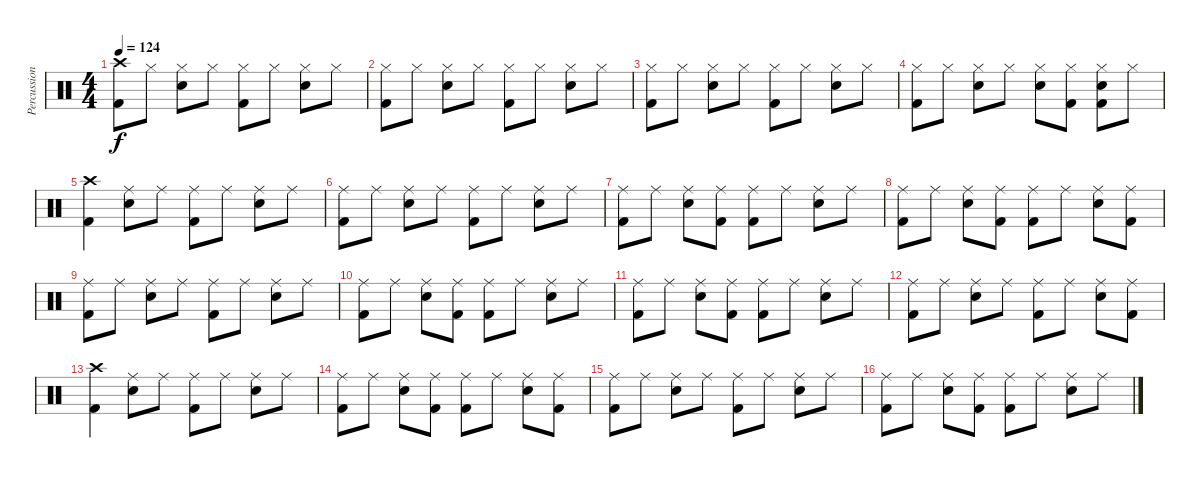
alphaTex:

\track ("Percussion" "Percussion") {instrument percussion}
\staff {score}
\articulation defaults
\ts (4 4)
\tempo 124
\clef neutral
\ks c
("Crash high (hit)" "Kick (hit) 2").8{dy f} "Hi-Hat (closed)".8 ("Hi-Hat (closed)" "Snare (hit) 2").8 "Hi-Hat (closed)".8 ("Hi-Hat (closed)" "Kick (hit) 2").8 "Hi-Hat (closed)".8 ("Hi-Hat (closed)" "Snare (hit) 2").8 "Hi-Hat (closed)".8 |
("Hi-Hat (closed)" "Kick (hit) 2").8 "Hi-Hat (closed)".8 ("Hi-Hat (closed)" "Snare (hit) 2").8 "Hi-Hat (closed)".8 ("Hi-Hat (closed)" "Kick (hit) 2").8 "Hi-Hat (closed)".8 ("Hi-Hat (closed)" "Snare (hit) 2").8 "Hi-Hat (closed)".8 |
("Hi-Hat (closed)" "Kick (hit) 2").8 "Hi-Hat (closed)".8 ("Hi-Hat (closed)" "Snare (hit) 2").8 "Hi-Hat (closed)".8 ("Hi-Hat (closed)" "Kick (hit) 2").8 "Hi-Hat (closed)".8 ("Hi-Hat (closed)" "Snare (hit) 2").8 "Hi-Hat (closed)".8 |
("Hi-Hat (closed)" "Kick (hit) 2").8 "Hi-Hat (closed)".8 ("Hi-Hat (closed)" "Snare (hit) 2").8 "Hi-Hat (closed)".8 ("Hi-Hat (closed)" "Snare (hit) 2").8 ("Hi-Hat (closed)" "Kick (hit) 2").8 ("Hi-Hat (closed)" "Snare (hit) 2" "Kick (hit) 2").8 "Hi-Hat (closed)".8 |
("Crash high (hit)" "Kick (hit) 2").4 ("Ride (middle)" "Snare (hit) 2").8 "Ride (middle)".8 ("Ride (middle)" "Kick (hit) 2").8 "Ride (middle)".8 ("Ride (middle)" "Snare (hit) 2").8 "Ride (middle)".8 |
("Ride (middle)" "Kick (hit) 2").8 "Ride (middle)".8 ("Ride (middle)" "Snare (hit) 2").8 "Ride (middle)".8 ("Ride (middle)" "Kick (hit) 2").8 "Ride (middle)".8 ("Ride (middle)" "Snare (hit) 2").8 "Ride (middle)".8 |
("Ride (middle)" "Kick (hit) 2").8 "Ride (middle)".8 ("Ride (middle)" "Snare (hit) 2").8 ("Ride (middle)" "Kick (hit) 2").8 ("Ride (middle)" "Kick (hit) 2").8 "Ride (middle)".8 ("Ride (middle)" "Snare (hit) 2").8 "Ride (middle)".8 |
("Ride (middle)" "Kick (hit) 2").8 "Ride (middle)".8 ("Ride (middle)" "Snare (hit) 2").8 ("Ride (middle)" "Kick (hit) 2").8 ("Ride (middle)" "Kick (hit) 2").8 "Ride (middle)".8 ("Ride (middle)" "Snare (hit) 2").8 ("Ride (middle)" "Kick (hit) 2").8 |
("Ride (middle)" "Kick (hit) 2").8 "Ride (middle)".8 ("Ride (middle)" "Snare (hit) 2").8 "Ride (middle)".8 ("Ride (middle)" "Kick (hit) 2").8 "Ride (middle)".8 ("Ride (middle)" "Snare (hit) 2").8 "Ride (middle)".8 |
("Ride (middle)" "Kick (hit) 2").8 "Ride (middle)".8 ("Ride (middle)" "Snare (hit) 2").8 ("Ride (middle)" "Kick (hit) 2").8 ("Ride (middle)" "Kick (hit) 2").8 "Ride (middle)".8 ("Ride (middle)" "Snare (hit) 2").8 "Ride (middle)".8 |
("Ride (middle)" "Kick (hit) 2").8 "Ride (middle)".8 ("Ride (middle)" "Snare (hit) 2").8 ("Ride (middle)" "Kick (hit) 2").8 ("Ride (middle)" "Kick (hit) 2").8 "Ride (middle)".8 ("Ride (middle)" "Snare (hit) 2").8 "Ride (middle)".8 |
("Ride (middle)" "Kick (hit) 2").8 "Ride (middle)".8 ("Ride (middle)" "Snare (hit) 2").8 "Ride (middle)".8 ("Ride (middle)" "Kick (hit) 2").8 "Ride (middle)".8 ("Ride (middle)" "Snare (hit) 2").8 ("Ride (middle)" "Kick (hit) 2").8 |
("Crash high (hit)" "Kick (hit) 2").4 ("Ride (middle)" "Snare (hit) 2").8 "Ride (middle)".8 ("Ride (middle)" "Kick (hit) 2").8 "Ride (middle)".8 ("Ride (middle)" "Snare (hit) 2").8 "Ride (middle)".8 |
("Ride (middle)" "Kick (hit) 2").8 "Ride (middle)".8 ("Ride (middle)" "Snare (hit) 2").8 ("Ride (middle)" "Kick (hit) 2").8 ("Ride (middle)" "Kick (hit) 2").8 "Ride (middle)".8 ("Ride (middle)" "Snare (hit) 2").8 ("Ride (middle)" "Kick (hit) 2").8 |
("Ride (middle)" "Kick (hit) 2").8 "Ride (middle)".8 ("Ride (middle)" "Snare (hit) 2").8 "Ride (middle)".8 ("Ride (middle)" "Kick (hit) 2").8 "Ride (middle)".8 ("Ride (middle)" "Snare (hit) 2").8 "Ride (middle)".8 |
("Ride (middle)" "Kick (hit) 2").8 "Ride (middle)".8 ("Ride (middle)" "Snare (hit) 2").8 ("Ride (middle)" "Kick (hit) 2").8 ("Ride (middle)" "Kick (hit) 2").8 "Ride (middle)".8 ("Ride (middle)" "Snare (hit) 2").8 "Ride (middle)".8
